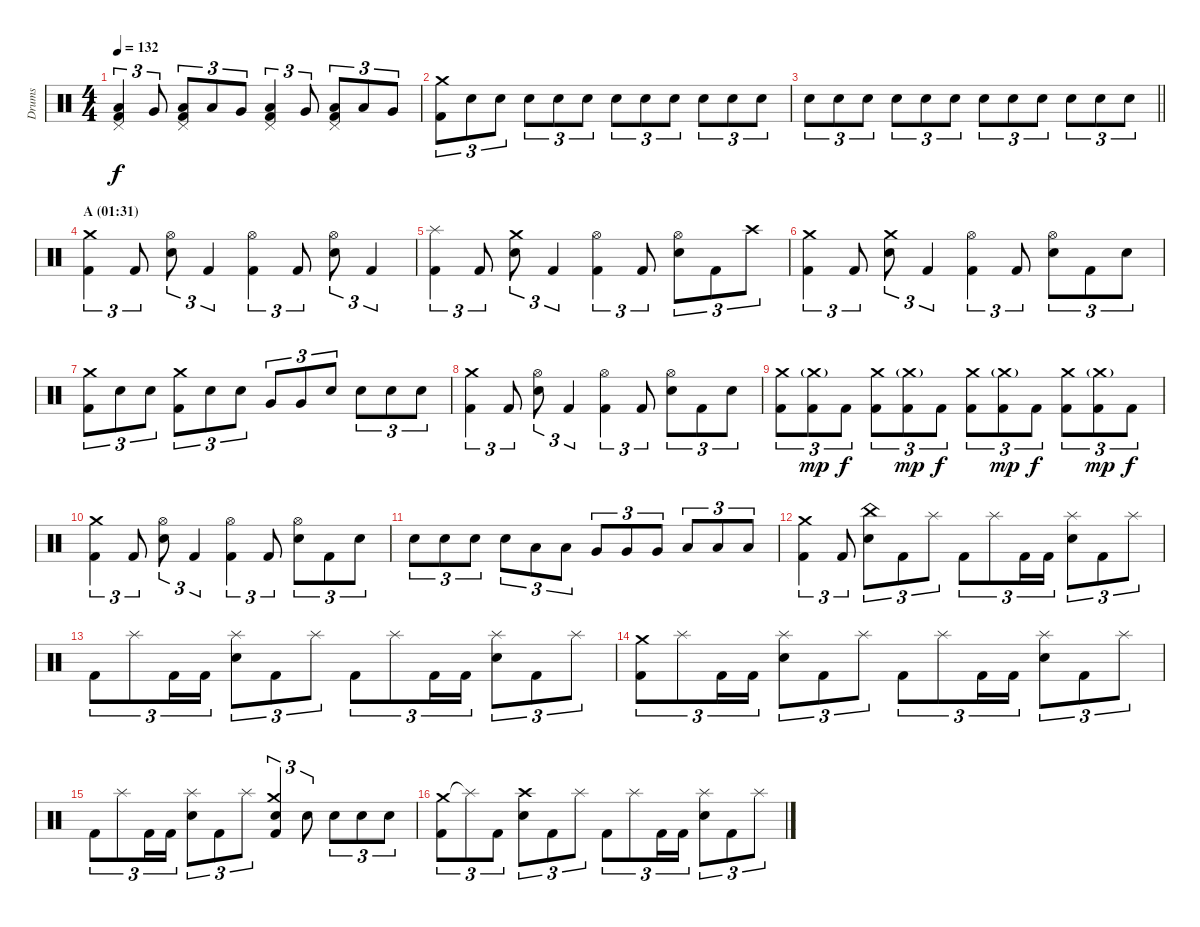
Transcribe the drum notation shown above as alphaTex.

\track ("Drums" "Drums") {instrument percussion}
\staff {score}
\articulation defaults
\ts (4 4)
\tempo 132
\clef neutral
\ks c
("Pedal Hi-Hat (hit)" "Low Tom (hit)" "Kick (hit) 2").4{tu (3 2) dy f} "Very Low Tom (hit)".8{tu (3 2)} ("Pedal Hi-Hat (hit)" "Low Tom (hit)" "Kick (hit) 2").8{tu (3 2)} "Low Tom (hit)".8{tu (3 2)} "Very Low Tom (hit)".8{tu (3 2)} ("Pedal Hi-Hat (hit)" "Low Tom (hit)" "Kick (hit) 2").4{tu (3 2)} "Very Low Tom (hit)".8{tu (3 2)} ("Pedal Hi-Hat (hit)" "Low Tom (hit)" "Kick (hit) 2").8{tu (3 2)} "Low Tom (hit)".8{tu (3 2)} "Very Low Tom (hit)".8{tu (3 2)} |
("Crash medium (hit)" "Kick (hit) 2").8{tu (3 2)} "Electric Snare (hit)".8{tu (3 2)} "Electric Snare (hit)".8{tu (3 2)} "Electric Snare (hit)".8{tu (3 2)} "Electric Snare (hit)".8{tu (3 2)} "Electric Snare (hit)".8{tu (3 2)} "Electric Snare (hit)".8{tu (3 2)} "Electric Snare (hit)".8{tu (3 2)} "Electric Snare (hit)".8{tu (3 2)} "Electric Snare (hit)".8{tu (3 2)} "Electric Snare (hit)".8{tu (3 2)} "Electric Snare (hit)".8{tu (3 2)} |
\barLineRight lightlight "Electric Snare (hit)".8{tu (3 2)} "Electric Snare (hit)".8{tu (3 2)} "Electric Snare (hit)".8{tu (3 2)} "Electric Snare (hit)".8{tu (3 2)} "Electric Snare (hit)".8{tu (3 2)} "Electric Snare (hit)".8{tu (3 2)} "Electric Snare (hit)".8{tu (3 2)} "Electric Snare (hit)".8{tu (3 2)} "Electric Snare (hit)".8{tu (3 2)} "Electric Snare (hit)".8{tu (3 2)} "Electric Snare (hit)".8{tu (3 2)} "Electric Snare (hit)".8{tu (3 2)}
|
\section ("" "A (01:31)")
("Crash medium (hit)" "Kick (hit) 2").4{tu (3 2)} "Kick (hit) 2".8{tu (3 2)} ("Hi-Hat (open)" "Electric Snare (hit)").8{tu (3 2)} "Kick (hit) 2".4{tu (3 2)} ("Hi-Hat (open)" "Kick (hit) 2").4{tu (3 2)} "Kick (hit) 2".8{tu (3 2)} ("Hi-Hat (open)" "Electric Snare (hit)").8{tu (3 2)} "Kick (hit) 2".4{tu (3 2)} |
("Splash (hit)" "Kick (hit) 2").4{tu (3 2)} "Kick (hit) 2".8{tu (3 2)} ("Crash medium (hit)" "Electric Snare (hit)").8{tu (3 2)} "Kick (hit) 2".4{tu (3 2)} ("Hi-Hat (open)" "Kick (hit) 2").4{tu (3 2)} "Kick (hit) 2".8{tu (3 2)} ("Hi-Hat (open)" "Electric Snare (hit)").8{tu (3 2)} "Kick (hit) 2".8{tu (3 2)} "Crash high (hit)".8{tu (3 2)} |
("Crash medium (hit)" "Kick (hit) 2").4{tu (3 2)} "Kick (hit) 2".8{tu (3 2)} ("Crash medium (hit)" "Electric Snare (hit)").8{tu (3 2)} "Kick (hit) 2".4{tu (3 2)} ("Hi-Hat (open)" "Kick (hit) 2").4{tu (3 2)} "Kick (hit) 2".8{tu (3 2)} ("Hi-Hat (open)" "Electric Snare (hit)").8{tu (3 2)} "Kick (hit) 2".8{tu (3 2)} "Electric Snare (hit)".8{tu (3 2)} |
("Crash medium (hit)" "Kick (hit) 2").8{tu (3 2)} "Electric Snare (hit)".8{tu (3 2)} "Electric Snare (hit)".8{tu (3 2)} ("Crash medium (hit)" "Kick (hit) 2").8{tu (3 2)} "Electric Snare (hit)".8{tu (3 2)} "Electric Snare (hit)".8{tu (3 2)} "Very Low Tom (hit)".8{tu (3 2)} "Very Low Tom (hit)".8{tu (3 2)} "Electric Snare (hit)".8{tu (3 2)} "Electric Snare (hit)".8{tu (3 2)} "Electric Snare (hit)".8{tu (3 2)} "Electric Snare (hit)".8{tu (3 2)} |
("Crash medium (hit)" "Kick (hit) 2").4{tu (3 2)} "Kick (hit) 2".8{tu (3 2)} ("Hi-Hat (open)" "Electric Snare (hit)").8{tu (3 2)} "Kick (hit) 2".4{tu (3 2)} ("Hi-Hat (open)" "Kick (hit) 2").4{tu (3 2)} "Kick (hit) 2".8{tu (3 2)} ("Hi-Hat (open)" "Electric Snare (hit)").8{tu (3 2)} "Kick (hit) 2".8{tu (3 2)} "Electric Snare (hit)".8{tu (3 2)} |
("Crash medium (hit)" "Kick (hit) 2").8{tu (3 2)} ("Crash medium (hit)"{g} "Kick (hit) 2").8{tu (3 2) dy mp} "Kick (hit) 2".8{tu (3 2) dy f} ("Crash medium (hit)" "Kick (hit) 2").8{tu (3 2)} ("Crash medium (hit)"{g} "Kick (hit) 2").8{tu (3 2) dy mp} "Kick (hit) 2".8{tu (3 2) dy f} ("Crash medium (hit)" "Kick (hit) 2").8{tu (3 2)} ("Crash medium (hit)"{g} "Kick (hit) 2").8{tu (3 2) dy mp} "Kick (hit) 2".8{tu (3 2) dy f} ("Crash medium (hit)" "Kick (hit) 2").8{tu (3 2)} ("Crash medium (hit)"{g} "Kick (hit) 2").8{tu (3 2) dy mp} "Kick (hit) 2".8{tu (3 2) dy f} |
("Crash medium (hit)" "Kick (hit) 2").4{tu (3 2)} "Kick (hit) 2".8{tu (3 2)} ("Hi-Hat (open)" "Electric Snare (hit)").8{tu (3 2)} "Kick (hit) 2".4{tu (3 2)} ("Hi-Hat (open)" "Kick (hit) 2").4{tu (3 2)} "Kick (hit) 2".8{tu (3 2)} ("Hi-Hat (open)" "Electric Snare (hit)").8{tu (3 2)} "Kick (hit) 2".8{tu (3 2)} "Electric Snare (hit)".8{tu (3 2)} |
"Electric Snare (hit)".8{tu (3 2)} "Electric Snare (hit)".8{tu (3 2)} "Electric Snare (hit)".8{tu (3 2)} "Electric Snare (hit)".8{tu (3 2)} "Low Tom (hit)".8{tu (3 2)} "Low Tom (hit)".8{tu (3 2)} "Very Low Tom (hit)".8{tu (3 2)} "Very Low Tom (hit)".8{tu (3 2)} "Very Low Tom (hit)".8{tu (3 2)} "Low Floor Tom (hit)".8{tu (3 2)} "Low Floor Tom (hit)".8{tu (3 2)} "Low Floor Tom (hit)".8{tu (3 2)} |
("Crash medium (hit)" "Kick (hit) 2").4{tu (3 2)} "Kick (hit) 2".8{tu (3 2)} ("China (hit)" "Electric Snare (hit)").8{tu (3 2)} "Kick (hit) 2".8{tu (3 2)} "Splash (hit)".8{tu (3 2)} "Kick (hit) 2".8{tu (3 2)} "Splash (hit)".8{tu (3 2)} "Kick (hit) 2".16{tu (3 2)} "Kick (hit) 2".16{tu (3 2)} ("Splash (hit)" "Electric Snare (hit)").8{tu (3 2)} "Kick (hit) 2".8{tu (3 2)} "Splash (hit)".8{tu (3 2)} |
"Kick (hit) 2".8{tu (3 2)} "Splash (hit)".8{tu (3 2)} "Kick (hit) 2".16{tu (3 2)} "Kick (hit) 2".16{tu (3 2)} ("Splash (hit)" "Electric Snare (hit)").8{tu (3 2)} "Kick (hit) 2".8{tu (3 2)} "Splash (hit)".8{tu (3 2)} "Kick (hit) 2".8{tu (3 2)} "Splash (hit)".8{tu (3 2)} "Kick (hit) 2".16{tu (3 2)} "Kick (hit) 2".16{tu (3 2)} ("Splash (hit)" "Electric Snare (hit)").8{tu (3 2)} "Kick (hit) 2".8{tu (3 2)} "Splash (hit)".8{tu (3 2)} |
("Crash medium (hit)" "Kick (hit) 2").8{tu (3 2)} "Splash (hit)".8{tu (3 2)} "Kick (hit) 2".16{tu (3 2)} "Kick (hit) 2".16{tu (3 2)} ("Splash (hit)" "Electric Snare (hit)").8{tu (3 2)} "Kick (hit) 2".8{tu (3 2)} "Splash (hit)".8{tu (3 2)} "Kick (hit) 2".8{tu (3 2)} "Splash (hit)".8{tu (3 2)} "Kick (hit) 2".16{tu (3 2)} "Kick (hit) 2".16{tu (3 2)} ("Splash (hit)" "Electric Snare (hit)").8{tu (3 2)} "Kick (hit) 2".8{tu (3 2)} "Splash (hit)".8{tu (3 2)} |
"Kick (hit) 2".8{tu (3 2)} "Splash (hit)".8{tu (3 2)} "Kick (hit) 2".16{tu (3 2)} "Kick (hit) 2".16{tu (3 2)} ("Splash (hit)" "Electric Snare (hit)").8{tu (3 2)} "Kick (hit) 2".8{tu (3 2)} "Splash (hit)".8{tu (3 2)} ("Crash medium (hit)" "Electric Snare (hit)" "Kick (hit) 2").4{tu (3 2)} "Electric Snare (hit)".8{tu (3 2)} "Electric Snare (hit)".8{tu (3 2)} "Electric Snare (hit)".8{tu (3 2)} "Electric Snare (hit)".8{tu (3 2)} |
("Crash medium (hit)" "Kick (hit) 2").8{tu (3 2)} "Splash (hit)"{t}.8{tu (3 2)} "Kick (hit) 2".8{tu (3 2)} ("Crash high (hit)" "Electric Snare (hit)").8{tu (3 2)} "Kick (hit) 2".8{tu (3 2)} "Splash (hit)".8{tu (3 2)} "Kick (hit) 2".8{tu (3 2)} "Splash (hit)".8{tu (3 2)} "Kick (hit) 2".16{tu (3 2)} "Kick (hit) 2".16{tu (3 2)} ("Splash (hit)" "Electric Snare (hit)").8{tu (3 2)} "Kick (hit) 2".8{tu (3 2)} "Splash (hit)".8{tu (3 2)}
